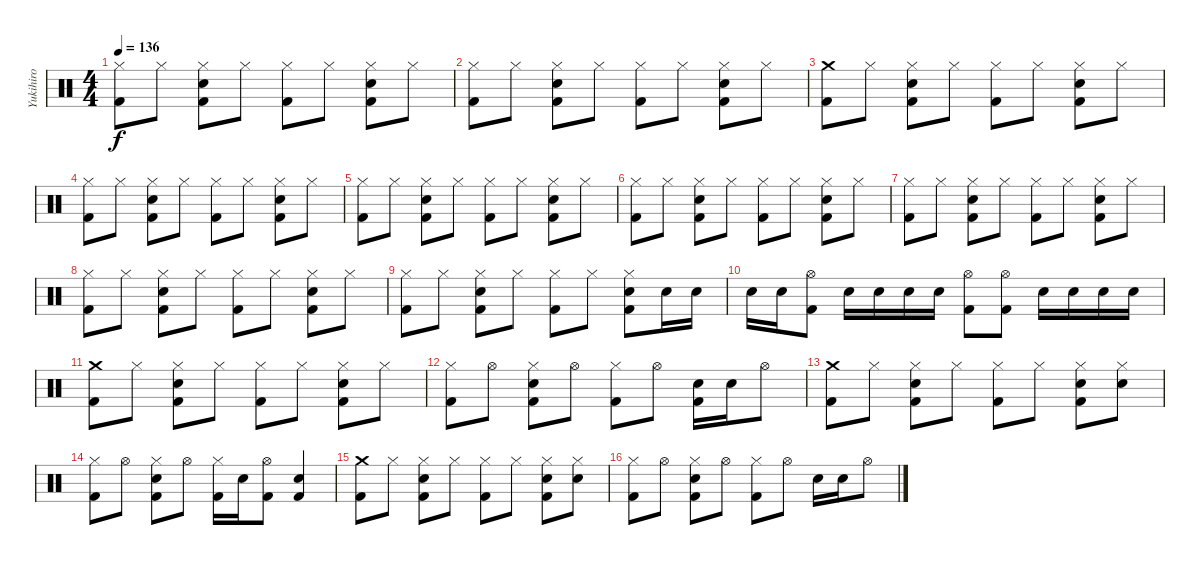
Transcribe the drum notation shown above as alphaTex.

\track ("Yukihiro" "Yukihiro") {instrument percussion}
\staff {score}
\articulation defaults
\ts (4 4)
\tempo 136
\clef neutral
\ks c
("Hi-Hat (closed)" "Kick (hit) 2").8{dy f} "Hi-Hat (closed)".8 ("Hi-Hat (closed)" "Snare (hit) 2" "Kick (hit) 2").8 "Hi-Hat (closed)".8 ("Hi-Hat (closed)" "Kick (hit) 2").8 "Hi-Hat (closed)".8 ("Hi-Hat (closed)" "Snare (hit) 2" "Kick (hit) 2").8 "Hi-Hat (closed)".8 |
("Hi-Hat (closed)" "Kick (hit) 2").8 "Hi-Hat (closed)".8 ("Hi-Hat (closed)" "Snare (hit) 2" "Kick (hit) 2").8 "Hi-Hat (closed)".8 ("Hi-Hat (closed)" "Kick (hit) 2").8 "Hi-Hat (closed)".8 ("Hi-Hat (closed)" "Snare (hit) 2" "Kick (hit) 2").8 "Hi-Hat (closed)".8 |
("Crash medium (hit)" "Kick (hit) 2").8 "Hi-Hat (closed)".8 ("Hi-Hat (closed)" "Snare (hit) 2" "Kick (hit) 2").8 "Hi-Hat (closed)".8 ("Hi-Hat (closed)" "Kick (hit) 2").8 "Hi-Hat (closed)".8 ("Hi-Hat (closed)" "Snare (hit) 2" "Kick (hit) 2").8 "Hi-Hat (closed)".8 |
("Hi-Hat (closed)" "Kick (hit) 2").8 "Hi-Hat (closed)".8 ("Hi-Hat (closed)" "Snare (hit) 2" "Kick (hit) 2").8 "Hi-Hat (closed)".8 ("Hi-Hat (closed)" "Kick (hit) 2").8 "Hi-Hat (closed)".8 ("Hi-Hat (closed)" "Snare (hit) 2" "Kick (hit) 2").8 "Hi-Hat (closed)".8 |
("Hi-Hat (closed)" "Kick (hit) 2").8 "Hi-Hat (closed)".8 ("Hi-Hat (closed)" "Snare (hit) 2" "Kick (hit) 2").8 "Hi-Hat (closed)".8 ("Hi-Hat (closed)" "Kick (hit) 2").8 "Hi-Hat (closed)".8 ("Hi-Hat (closed)" "Snare (hit) 2" "Kick (hit) 2").8 "Hi-Hat (closed)".8 |
("Hi-Hat (closed)" "Kick (hit) 2").8 "Hi-Hat (closed)".8 ("Hi-Hat (closed)" "Snare (hit) 2" "Kick (hit) 2").8 "Hi-Hat (closed)".8 ("Hi-Hat (closed)" "Kick (hit) 2").8 "Hi-Hat (closed)".8 ("Hi-Hat (closed)" "Snare (hit) 2" "Kick (hit) 2").8 "Hi-Hat (closed)".8 |
("Hi-Hat (closed)" "Kick (hit) 2").8 "Hi-Hat (closed)".8 ("Hi-Hat (closed)" "Snare (hit) 2" "Kick (hit) 2").8 "Hi-Hat (closed)".8 ("Hi-Hat (closed)" "Kick (hit) 2").8 "Hi-Hat (closed)".8 ("Hi-Hat (closed)" "Snare (hit) 2" "Kick (hit) 2").8 "Hi-Hat (closed)".8 |
("Hi-Hat (closed)" "Kick (hit) 2").8 "Hi-Hat (closed)".8 ("Hi-Hat (closed)" "Snare (hit) 2" "Kick (hit) 2").8 "Hi-Hat (closed)".8 ("Hi-Hat (closed)" "Kick (hit) 2").8 "Hi-Hat (closed)".8 ("Hi-Hat (closed)" "Snare (hit) 2" "Kick (hit) 2").8 "Hi-Hat (closed)".8 |
("Hi-Hat (closed)" "Kick (hit) 2").8 "Hi-Hat (closed)".8 ("Hi-Hat (closed)" "Snare (hit) 2" "Kick (hit) 2").8 "Hi-Hat (closed)".8 ("Hi-Hat (closed)" "Kick (hit) 2").8 "Hi-Hat (closed)".8 ("Hi-Hat (closed)" "Snare (hit) 2" "Kick (hit) 2").8 "Snare (hit) 2".16 "Snare (hit) 2".16 |
"Snare (hit) 2".16 "Snare (hit) 2".16 ("Hi-Hat (open)" "Kick (hit) 2").8 "Snare (hit) 2".16 "Snare (hit) 2".16 "Snare (hit) 2".16 "Snare (hit) 2".16 ("Hi-Hat (open)" "Kick (hit) 2").8 ("Hi-Hat (open)" "Kick (hit) 2").8 "Snare (hit) 2".16 "Snare (hit) 2".16 "Snare (hit) 2".16 "Snare (hit) 2".16 |
("Crash medium (hit)" "Kick (hit) 2").8 "Hi-Hat (closed)".8 ("Hi-Hat (closed)" "Snare (hit) 2" "Kick (hit) 2").8 "Hi-Hat (closed)".8 ("Hi-Hat (closed)" "Kick (hit) 2").8 "Hi-Hat (closed)".8 ("Hi-Hat (closed)" "Snare (hit) 2" "Kick (hit) 2").8 "Hi-Hat (closed)".8 |
("Hi-Hat (closed)" "Kick (hit) 2").8 "Hi-Hat (open)".8 ("Hi-Hat (closed)" "Snare (hit) 2" "Kick (hit) 2").8 "Hi-Hat (open)".8 ("Hi-Hat (closed)" "Kick (hit) 2").8 "Hi-Hat (open)".8 ("Snare (hit) 2" "Kick (hit) 2").16 "Snare (hit) 2".16 "Hi-Hat (open)".8 |
("Crash medium (hit)" "Kick (hit) 2").8 "Hi-Hat (closed)".8 ("Hi-Hat (closed)" "Snare (hit) 2" "Kick (hit) 2").8 "Hi-Hat (closed)".8 ("Hi-Hat (closed)" "Kick (hit) 2").8 "Hi-Hat (closed)".8 ("Hi-Hat (closed)" "Snare (hit) 2" "Kick (hit) 2").8 ("Hi-Hat (closed)" "Snare (hit) 2").8 |
("Hi-Hat (closed)" "Kick (hit) 2").8 "Hi-Hat (open)".8 ("Hi-Hat (closed)" "Snare (hit) 2" "Kick (hit) 2").8 "Hi-Hat (open)".8 ("Hi-Hat (closed)" "Kick (hit) 2").16 "Snare (hit) 2".16 ("Hi-Hat (open)" "Kick (hit) 2").8 ("Snare (hit) 2" "Kick (hit) 2").4 |
("Crash medium (hit)" "Kick (hit) 2").8 "Hi-Hat (closed)".8 ("Hi-Hat (closed)" "Snare (hit) 2" "Kick (hit) 2").8 "Hi-Hat (closed)".8 ("Hi-Hat (closed)" "Kick (hit) 2").8 "Hi-Hat (closed)".8 ("Hi-Hat (closed)" "Snare (hit) 2" "Kick (hit) 2").8 ("Hi-Hat (closed)" "Snare (hit) 2").8 |
("Hi-Hat (closed)" "Kick (hit) 2").8 "Hi-Hat (open)".8 ("Hi-Hat (closed)" "Snare (hit) 2" "Kick (hit) 2").8 "Hi-Hat (open)".8 ("Hi-Hat (closed)" "Kick (hit) 2").8 "Hi-Hat (open)".8 "Snare (hit) 2".16 "Snare (hit) 2".16 "Hi-Hat (open)".8
